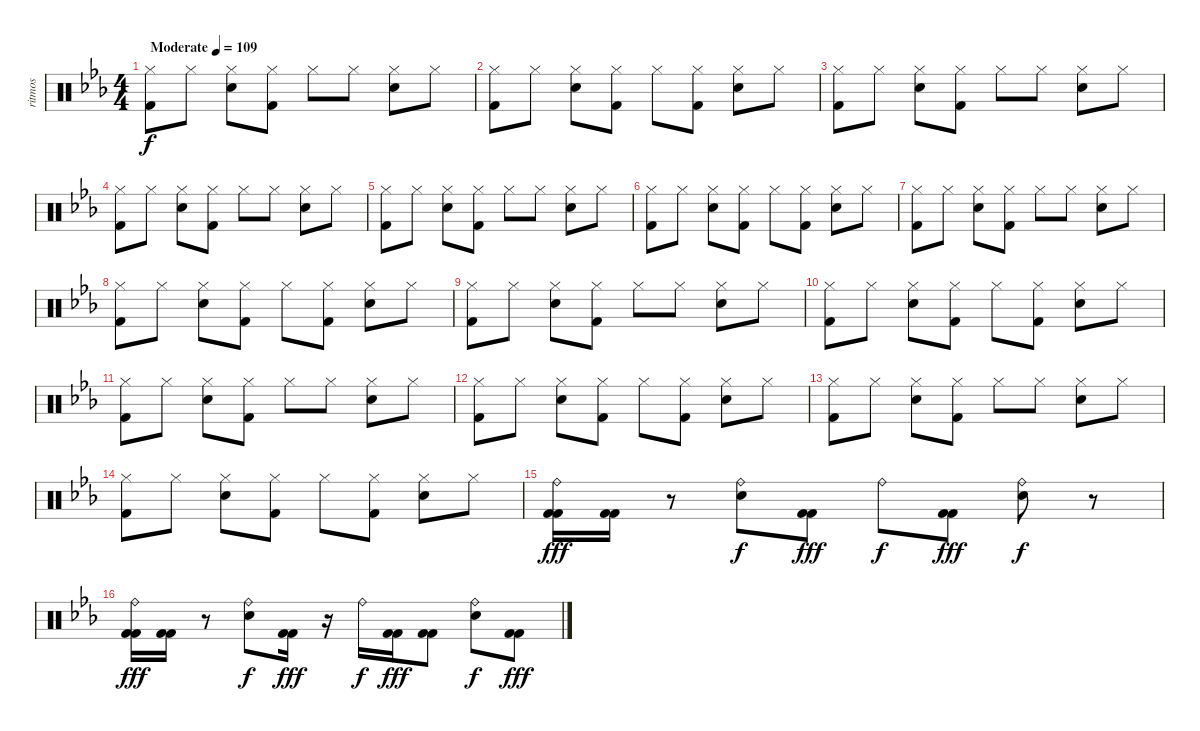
\track ("ritmos" "ritmos") {instrument percussion}
\staff {score}
\articulation defaults
\ts (4 4)
\tempo (109 "Moderate")
\clef neutral
\ks eb
("Hi-Hat (closed)" "Kick (hit) 2").8{dy f} "Hi-Hat (closed)".8 ("Hi-Hat (closed)" "Electric Snare (hit)").8 ("Hi-Hat (closed)" "Kick (hit) 2").8 "Hi-Hat (closed)".8 "Hi-Hat (closed)".8 ("Hi-Hat (closed)" "Electric Snare (hit)").8 "Hi-Hat (closed)".8 |
("Hi-Hat (closed)" "Kick (hit) 2").8 "Hi-Hat (closed)".8 ("Hi-Hat (closed)" "Electric Snare (hit)").8 ("Hi-Hat (closed)" "Kick (hit) 2").8 "Hi-Hat (closed)".8 ("Hi-Hat (closed)" "Kick (hit) 2").8 ("Hi-Hat (closed)" "Electric Snare (hit)").8 "Hi-Hat (closed)".8 |
("Hi-Hat (closed)" "Kick (hit) 2").8 "Hi-Hat (closed)".8 ("Hi-Hat (closed)" "Electric Snare (hit)").8 ("Hi-Hat (closed)" "Kick (hit) 2").8 "Hi-Hat (closed)".8 "Hi-Hat (closed)".8 ("Hi-Hat (closed)" "Electric Snare (hit)").8 "Hi-Hat (closed)".8 |
("Hi-Hat (closed)" "Kick (hit) 2").8 "Hi-Hat (closed)".8 ("Hi-Hat (closed)" "Electric Snare (hit)").8 ("Hi-Hat (closed)" "Kick (hit) 2").8 "Hi-Hat (closed)".8 "Hi-Hat (closed)".8 ("Hi-Hat (closed)" "Electric Snare (hit)").8 "Hi-Hat (closed)".8 |
("Hi-Hat (closed)" "Kick (hit) 2").8 "Hi-Hat (closed)".8 ("Hi-Hat (closed)" "Electric Snare (hit)").8 ("Hi-Hat (closed)" "Kick (hit) 2").8 "Hi-Hat (closed)".8 "Hi-Hat (closed)".8 ("Hi-Hat (closed)" "Electric Snare (hit)").8 "Hi-Hat (closed)".8 |
("Hi-Hat (closed)" "Kick (hit) 2").8 "Hi-Hat (closed)".8 ("Hi-Hat (closed)" "Electric Snare (hit)").8 ("Hi-Hat (closed)" "Kick (hit) 2").8 "Hi-Hat (closed)".8 ("Hi-Hat (closed)" "Kick (hit) 2").8 ("Hi-Hat (closed)" "Electric Snare (hit)").8 "Hi-Hat (closed)".8 |
("Hi-Hat (closed)" "Kick (hit) 2").8 "Hi-Hat (closed)".8 ("Hi-Hat (closed)" "Electric Snare (hit)").8 ("Hi-Hat (closed)" "Kick (hit) 2").8 "Hi-Hat (closed)".8 "Hi-Hat (closed)".8 ("Hi-Hat (closed)" "Electric Snare (hit)").8 "Hi-Hat (closed)".8 |
("Hi-Hat (closed)" "Kick (hit) 2").8 "Hi-Hat (closed)".8 ("Hi-Hat (closed)" "Electric Snare (hit)").8 ("Hi-Hat (closed)" "Kick (hit) 2").8 "Hi-Hat (closed)".8 ("Hi-Hat (closed)" "Kick (hit) 2").8 ("Hi-Hat (closed)" "Electric Snare (hit)").8 "Hi-Hat (closed)".8 |
("Hi-Hat (closed)" "Kick (hit) 2").8 "Hi-Hat (closed)".8 ("Hi-Hat (closed)" "Electric Snare (hit)").8 ("Hi-Hat (closed)" "Kick (hit) 2").8 "Hi-Hat (closed)".8 "Hi-Hat (closed)".8 ("Hi-Hat (closed)" "Electric Snare (hit)").8 "Hi-Hat (closed)".8 |
("Hi-Hat (closed)" "Kick (hit) 2").8 "Hi-Hat (closed)".8 ("Hi-Hat (closed)" "Electric Snare (hit)").8 ("Hi-Hat (closed)" "Kick (hit) 2").8 "Hi-Hat (closed)".8 ("Hi-Hat (closed)" "Kick (hit) 2").8 ("Hi-Hat (closed)" "Electric Snare (hit)").8 "Hi-Hat (closed)".8 |
("Hi-Hat (closed)" "Kick (hit) 2").8 "Hi-Hat (closed)".8 ("Hi-Hat (closed)" "Electric Snare (hit)").8 ("Hi-Hat (closed)" "Kick (hit) 2").8 "Hi-Hat (closed)".8 "Hi-Hat (closed)".8 ("Hi-Hat (closed)" "Electric Snare (hit)").8 "Hi-Hat (closed)".8 |
("Hi-Hat (closed)" "Kick (hit) 2").8 "Hi-Hat (closed)".8 ("Hi-Hat (closed)" "Electric Snare (hit)").8 ("Hi-Hat (closed)" "Kick (hit) 2").8 "Hi-Hat (closed)".8 ("Hi-Hat (closed)" "Kick (hit) 2").8 ("Hi-Hat (closed)" "Electric Snare (hit)").8 "Hi-Hat (closed)".8 |
("Hi-Hat (closed)" "Kick (hit) 2").8 "Hi-Hat (closed)".8 ("Hi-Hat (closed)" "Electric Snare (hit)").8 ("Hi-Hat (closed)" "Kick (hit) 2").8 "Hi-Hat (closed)".8 "Hi-Hat (closed)".8 ("Hi-Hat (closed)" "Electric Snare (hit)").8 "Hi-Hat (closed)".8 |
("Hi-Hat (closed)" "Kick (hit) 2").8 "Hi-Hat (closed)".8 ("Hi-Hat (closed)" "Electric Snare (hit)").8 ("Hi-Hat (closed)" "Kick (hit) 2").8 "Hi-Hat (closed)".8 ("Hi-Hat (closed)" "Kick (hit) 2").8 ("Hi-Hat (closed)" "Electric Snare (hit)").8 "Hi-Hat (closed)".8 |
("Ride (bell)" "Kick (hit) 2" "Kick (hit) 2").16{dy fff} ("Kick (hit) 2" "Kick (hit) 2").16 r.8 ("Ride (bell)" "Electric Snare (hit)").8{dy f} ("Kick (hit) 2" "Kick (hit) 2").8{dy fff} "Ride (bell)".8{dy f} ("Kick (hit) 2" "Kick (hit) 2").8{dy fff} ("Ride (bell)" "Electric Snare (hit)").8{dy f} r.8 |
("Ride (bell)" "Kick (hit) 2" "Kick (hit) 2").16{dy fff} ("Kick (hit) 2" "Kick (hit) 2").16 r.8 ("Ride (bell)" "Electric Snare (hit)").8{dy f} ("Kick (hit) 2" "Kick (hit) 2").16{dy fff} r.16 "Ride (bell)".16{dy f} ("Kick (hit) 2" "Kick (hit) 2").16{dy fff} ("Kick (hit) 2" "Kick (hit) 2").8 ("Ride (bell)" "Electric Snare (hit)").8{dy f} ("Kick (hit) 2" "Kick (hit) 2").8{dy fff}
